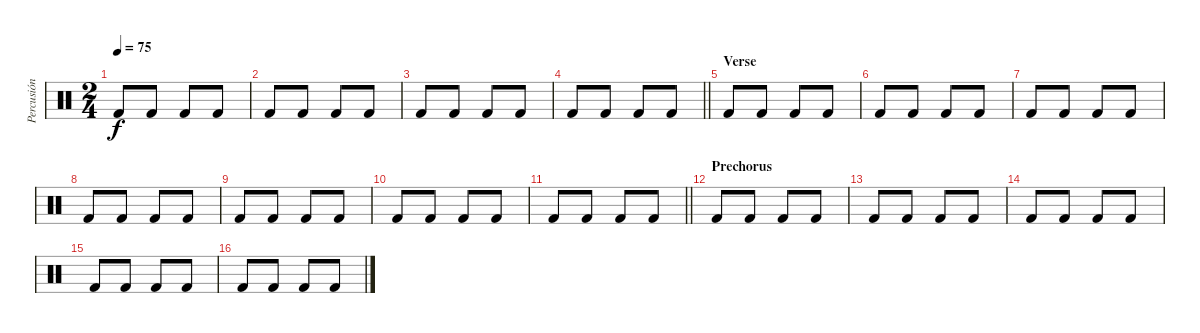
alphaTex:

\track ("Percusión" "Percusión") {instrument percussion}
\staff {score}
\articulation defaults
\ts (2 4)
\tempo 75
\clef neutral
\ks c "Kick (hit) 2".8{dy f} "Kick (hit) 2".8 "Kick (hit) 2".8 "Kick (hit) 2".8
|
"Kick (hit) 2".8 "Kick (hit) 2".8 "Kick (hit) 2".8 "Kick (hit) 2".8 |
"Kick (hit) 2".8 "Kick (hit) 2".8 "Kick (hit) 2".8 "Kick (hit) 2".8 |
\barLineRight lightlight "Kick (hit) 2".8 "Kick (hit) 2".8 "Kick (hit) 2".8 "Kick (hit) 2".8
|
\section ("" "Verse")
"Kick (hit) 2".8 "Kick (hit) 2".8 "Kick (hit) 2".8 "Kick (hit) 2".8 |
"Kick (hit) 2".8 "Kick (hit) 2".8 "Kick (hit) 2".8 "Kick (hit) 2".8 |
"Kick (hit) 2".8 "Kick (hit) 2".8 "Kick (hit) 2".8 "Kick (hit) 2".8 |
"Kick (hit) 2".8 "Kick (hit) 2".8 "Kick (hit) 2".8 "Kick (hit) 2".8 |
"Kick (hit) 2".8 "Kick (hit) 2".8 "Kick (hit) 2".8 "Kick (hit) 2".8 |
"Kick (hit) 2".8 "Kick (hit) 2".8 "Kick (hit) 2".8 "Kick (hit) 2".8 |
\barLineRight lightlight "Kick (hit) 2".8 "Kick (hit) 2".8 "Kick (hit) 2".8 "Kick (hit) 2".8
|
\section ("" "Prechorus")
"Kick (hit) 2".8 "Kick (hit) 2".8 "Kick (hit) 2".8 "Kick (hit) 2".8 |
"Kick (hit) 2".8 "Kick (hit) 2".8 "Kick (hit) 2".8 "Kick (hit) 2".8 |
"Kick (hit) 2".8 "Kick (hit) 2".8 "Kick (hit) 2".8 "Kick (hit) 2".8 |
"Kick (hit) 2".8 "Kick (hit) 2".8 "Kick (hit) 2".8 "Kick (hit) 2".8 |
"Kick (hit) 2".8 "Kick (hit) 2".8 "Kick (hit) 2".8 "Kick (hit) 2".8
